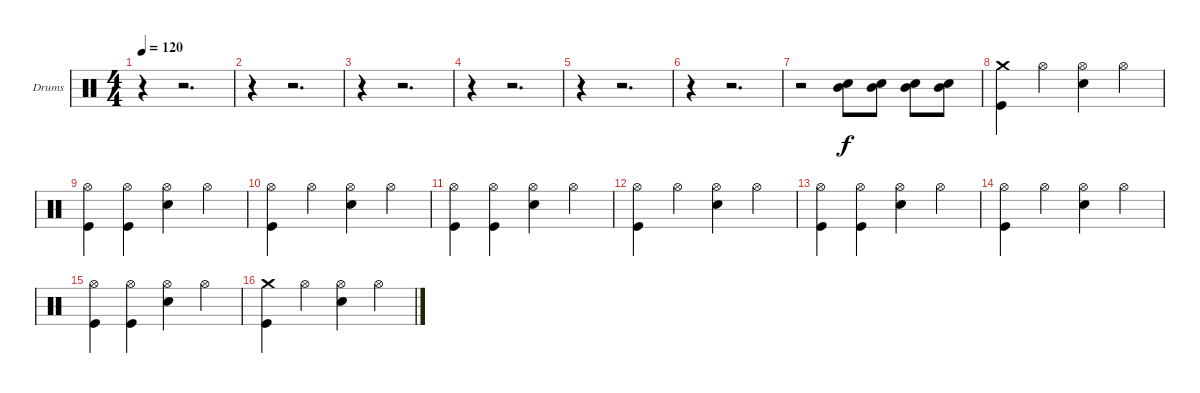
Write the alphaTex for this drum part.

\bracketExtendMode groupsimilarinstruments
\firstSystemTrackNameOrientation horizontal
\otherSystemsTrackNameOrientation horizontal
\track ("Drumkit (Christoph)" "Drums") {instrument percussion}
\staff {score}
\articulation defaults
\ts (4 4)
\tempo 120
\clef neutral
\ks c
r.4{dy f} r.2{d} |
r.4 r.2{d} |
r.4 r.2{d} |
r.4 r.2{d} |
r.4 r.2{d} |
r.4 r.2{d} |
r.2 ("Snare (hit) 2" "Mid Tom (hit)").8 ("Snare (hit) 2" "Mid Tom (hit)").8 ("Snare (hit) 2" "Mid Tom (hit)").8 ("Snare (hit) 2" "Mid Tom (hit)").8 |
("Crash medium (hit)" "Kick (hit)").4 "Hi-Hat (open)".4 ("Hi-Hat (open)" "Snare (hit) 2").4 "Hi-Hat (open)".4 |
("Hi-Hat (open)" "Kick (hit)").4 ("Hi-Hat (open)" "Kick (hit)").4 ("Hi-Hat (open)" "Snare (hit) 2").4 "Hi-Hat (open)".4 |
("Hi-Hat (open)" "Kick (hit)").4 "Hi-Hat (open)".4 ("Hi-Hat (open)" "Snare (hit) 2").4 "Hi-Hat (open)".4 |
("Hi-Hat (open)" "Kick (hit)").4 ("Hi-Hat (open)" "Kick (hit)").4 ("Hi-Hat (open)" "Snare (hit) 2").4 "Hi-Hat (open)".4 |
("Hi-Hat (open)" "Kick (hit)").4 "Hi-Hat (open)".4 ("Hi-Hat (open)" "Snare (hit) 2").4 "Hi-Hat (open)".4 |
("Hi-Hat (open)" "Kick (hit)").4 ("Hi-Hat (open)" "Kick (hit)").4 ("Hi-Hat (open)" "Snare (hit) 2").4 "Hi-Hat (open)".4 |
("Hi-Hat (open)" "Kick (hit)").4 "Hi-Hat (open)".4 ("Hi-Hat (open)" "Snare (hit) 2").4 "Hi-Hat (open)".4 |
("Hi-Hat (open)" "Kick (hit)").4 ("Hi-Hat (open)" "Kick (hit)").4 ("Hi-Hat (open)" "Snare (hit) 2").4 "Hi-Hat (open)".4 |
("Crash medium (hit)" "Kick (hit)").4 "Hi-Hat (open)".4 ("Hi-Hat (open)" "Snare (hit) 2").4 "Hi-Hat (open)".4
